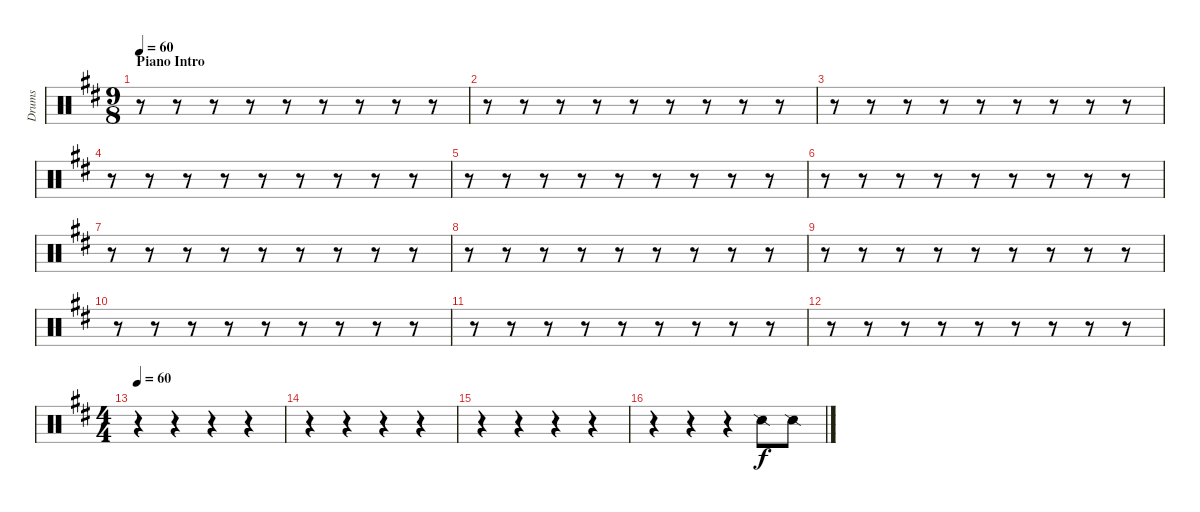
\track ("Drums" "Drums") {instrument percussion}
\staff {score}
\articulation defaults
\ts (9 8)
\section ("" "Piano Intro")
\tempo 60
\tempo 120
\tempo 60
\clef neutral
\ks bminor
r.8{dy f} r.8 r.8 r.8 r.8 r.8 r.8 r.8 r.8 |
r.8 r.8 r.8 r.8 r.8 r.8 r.8 r.8 r.8 |
r.8 r.8 r.8 r.8 r.8 r.8 r.8 r.8 r.8 |
r.8 r.8 r.8 r.8 r.8 r.8 r.8 r.8 r.8 |
r.8 r.8 r.8 r.8 r.8 r.8 r.8 r.8 r.8 |
r.8 r.8 r.8 r.8 r.8 r.8 r.8 r.8 r.8 |
r.8 r.8 r.8 r.8 r.8 r.8 r.8 r.8 r.8 |
r.8 r.8 r.8 r.8 r.8 r.8 r.8 r.8 r.8 |
r.8 r.8 r.8 r.8 r.8 r.8 r.8 r.8 r.8 |
r.8 r.8 r.8 r.8 r.8 r.8 r.8 r.8 r.8 |
r.8 r.8 r.8 r.8 r.8 r.8 r.8 r.8 r.8 |
r.8 r.8 r.8 r.8 r.8 r.8 r.8 r.8 r.8 |
\ts (4 4)
\tempo 60
r.4 r.4 r.4 r.4 |
r.4 r.4 r.4 r.4 |
r.4 r.4 r.4 r.4 |
r.4 r.4 r.4 "Snare (side stick) 2".8 "Snare (side stick) 2".8
